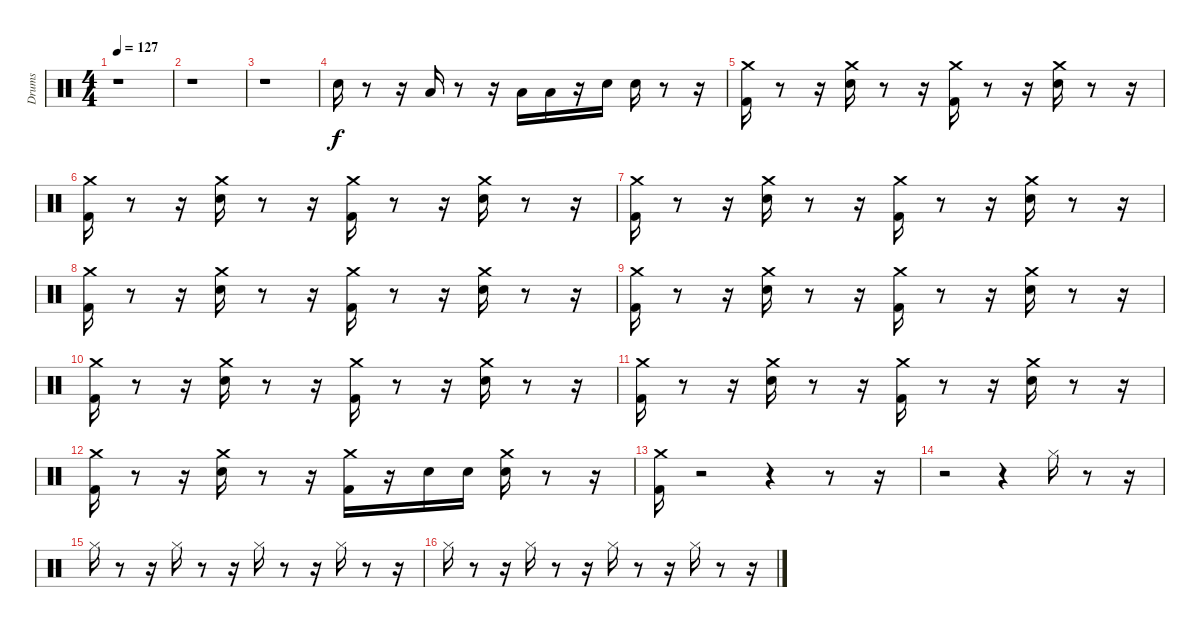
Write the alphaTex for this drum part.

\track ("Drums               " "Drums     ") {instrument percussion}
\staff {score}
\articulation defaults
\ts (4 4)
\tempo 127
\clef neutral
\ks c
r.1{dy f} |
r.1 |
r.1 |
"Electric Snare (hit)".16 r.8 r.16 "Low Floor Tom (hit)".16 r.8 r.16 "Low Tom (hit)".16 "Low Tom (hit)".16 r.16 "Electric Snare (hit)".16 "Electric Snare (hit)".16 r.8 r.16 |
("Kick (hit) 2" "Crash medium (hit)").16 r.8 r.16 ("Electric Snare (hit)" "Crash medium (hit)").16 r.8 r.16 ("Kick (hit) 2" "Crash medium (hit)").16 r.8 r.16 ("Electric Snare (hit)" "Crash medium (hit)").16 r.8 r.16 |
("Kick (hit) 2" "Crash medium (hit)").16 r.8 r.16 ("Electric Snare (hit)" "Crash medium (hit)").16 r.8 r.16 ("Kick (hit) 2" "Crash medium (hit)").16 r.8 r.16 ("Electric Snare (hit)" "Crash medium (hit)").16 r.8 r.16 |
("Kick (hit) 2" "Crash medium (hit)").16 r.8 r.16 ("Electric Snare (hit)" "Crash medium (hit)").16 r.8 r.16 ("Kick (hit) 2" "Crash medium (hit)").16 r.8 r.16 ("Electric Snare (hit)" "Crash medium (hit)").16 r.8 r.16 |
("Kick (hit) 2" "Crash medium (hit)").16 r.8 r.16 ("Electric Snare (hit)" "Crash medium (hit)").16 r.8 r.16 ("Kick (hit) 2" "Crash medium (hit)").16 r.8 r.16 ("Electric Snare (hit)" "Crash medium (hit)").16 r.8 r.16 |
("Kick (hit) 2" "Crash medium (hit)").16 r.8 r.16 ("Electric Snare (hit)" "Crash medium (hit)").16 r.8 r.16 ("Kick (hit) 2" "Crash medium (hit)").16 r.8 r.16 ("Electric Snare (hit)" "Crash medium (hit)").16 r.8 r.16 |
("Kick (hit) 2" "Crash medium (hit)").16 r.8 r.16 ("Electric Snare (hit)" "Crash medium (hit)").16 r.8 r.16 ("Kick (hit) 2" "Crash medium (hit)").16 r.8 r.16 ("Electric Snare (hit)" "Crash medium (hit)").16 r.8 r.16 |
("Kick (hit) 2" "Crash medium (hit)").16 r.8 r.16 ("Electric Snare (hit)" "Crash medium (hit)").16 r.8 r.16 ("Kick (hit) 2" "Crash medium (hit)").16 r.8 r.16 ("Electric Snare (hit)" "Crash medium (hit)").16 r.8 r.16 |
("Kick (hit) 2" "Crash medium (hit)").16 r.8 r.16 ("Electric Snare (hit)" "Crash medium (hit)").16 r.8 r.16 ("Kick (hit) 2" "Crash medium (hit)").16 r.16 "Electric Snare (hit)".16 "Electric Snare (hit)".16 ("Electric Snare (hit)" "Crash medium (hit)").16 r.8 r.16 |
("Kick (hit) 2" "Crash medium (hit)").16 r.2 r.4 r.8 r.16 |
r.2 r.4 "Hi-Hat (closed)".16 r.8 r.16 |
"Hi-Hat (closed)".16 r.8 r.16 "Hi-Hat (closed)".16 r.8 r.16 "Hi-Hat (closed)".16 r.8 r.16 "Hi-Hat (closed)".16 r.8 r.16 |
"Hi-Hat (closed)".16 r.8 r.16 "Hi-Hat (closed)".16 r.8 r.16 "Hi-Hat (closed)".16 r.8 r.16 "Hi-Hat (closed)".16 r.8 r.16
